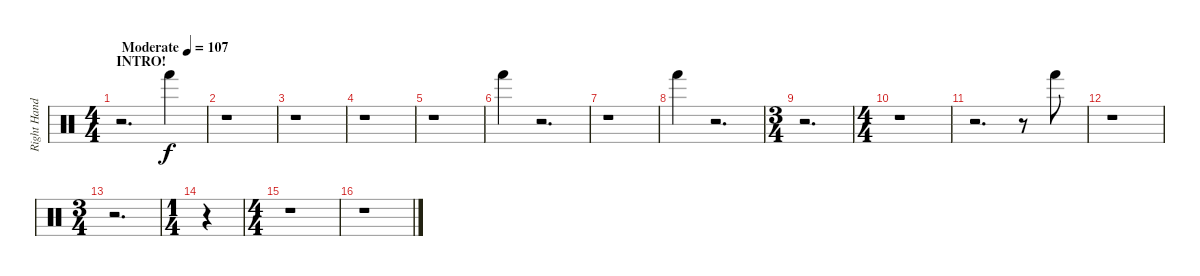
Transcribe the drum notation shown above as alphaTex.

\track ("Right Hand Rythm" "Right Hand") {instrument percussion}
\staff {score}
\articulation defaults
\ts (4 4)
\section ("" "INTRO!")
\tempo (107 "Moderate")
\clef neutral
\ks c
r.2{d dy f} "Hand (hit)".4 |
r.1 |
r.1 |
r.1 |
r.1 |
"Hand (hit)".4 r.2{d} |
r.1 |
"Hand (hit)".4 r.2{d} |
\ts (3 4)
r.2{d} |
\ts (4 4)
r.1 |
r.2{d} r.8 "Hand (hit)".8 |
r.1 |
\ts (3 4)
r.2{d} |
\ts (1 4)
r.4 |
\ts (4 4)
r.1 |
r.1
